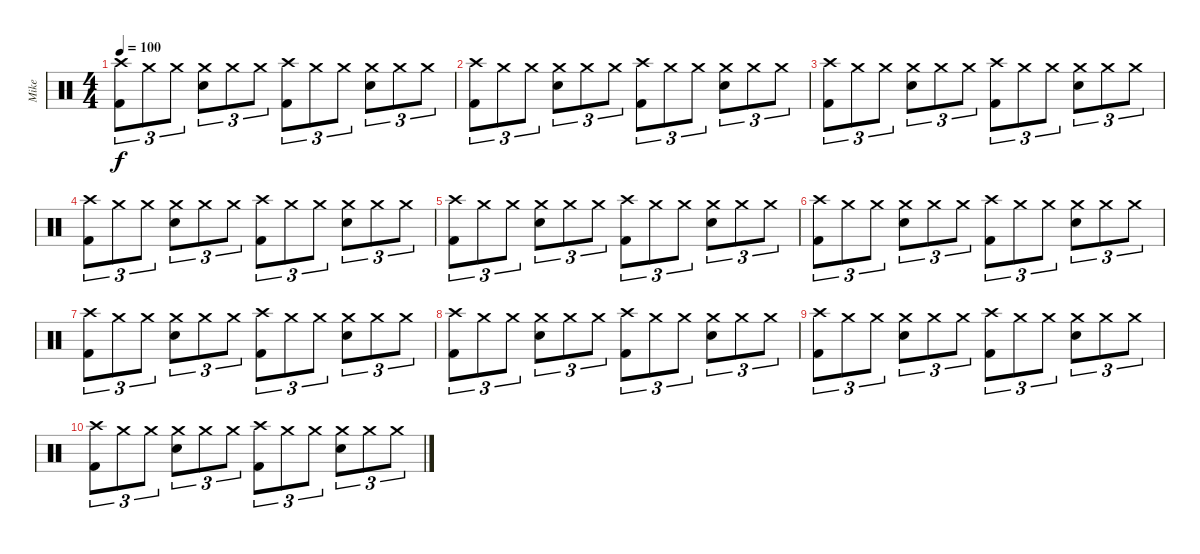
\track ("Mike" "Mike") {instrument percussion}
\staff {score}
\articulation defaults
\ts (4 4)
\tempo 100
\clef neutral
\ks c
("Crash high (hit)" "Kick (hit) 2").8{tu (3 2) dy f} "Crash medium (hit)".8{tu (3 2)} "Crash medium (hit)".8{tu (3 2)} ("Crash medium (hit)" "Electric Snare (hit)").8{tu (3 2)} "Crash medium (hit)".8{tu (3 2)} "Crash medium (hit)".8{tu (3 2)} ("Crash high (hit)" "Kick (hit) 2").8{tu (3 2)} "Crash medium (hit)".8{tu (3 2)} "Crash medium (hit)".8{tu (3 2)} ("Crash medium (hit)" "Electric Snare (hit)").8{tu (3 2)} "Crash medium (hit)".8{tu (3 2)} "Crash medium (hit)".8{tu (3 2)} |
("Crash high (hit)" "Kick (hit) 2").8{tu (3 2)} "Crash medium (hit)".8{tu (3 2)} "Crash medium (hit)".8{tu (3 2)} ("Crash medium (hit)" "Electric Snare (hit)").8{tu (3 2)} "Crash medium (hit)".8{tu (3 2)} "Crash medium (hit)".8{tu (3 2)} ("Crash high (hit)" "Kick (hit) 2").8{tu (3 2)} "Crash medium (hit)".8{tu (3 2)} "Crash medium (hit)".8{tu (3 2)} ("Crash medium (hit)" "Electric Snare (hit)").8{tu (3 2)} "Crash medium (hit)".8{tu (3 2)} "Crash medium (hit)".8{tu (3 2)} |
("Crash high (hit)" "Kick (hit) 2").8{tu (3 2)} "Crash medium (hit)".8{tu (3 2)} "Crash medium (hit)".8{tu (3 2)} ("Crash medium (hit)" "Electric Snare (hit)").8{tu (3 2)} "Crash medium (hit)".8{tu (3 2)} "Crash medium (hit)".8{tu (3 2)} ("Crash high (hit)" "Kick (hit) 2").8{tu (3 2)} "Crash medium (hit)".8{tu (3 2)} "Crash medium (hit)".8{tu (3 2)} ("Crash medium (hit)" "Electric Snare (hit)").8{tu (3 2)} "Crash medium (hit)".8{tu (3 2)} "Crash medium (hit)".8{tu (3 2)} |
("Crash high (hit)" "Kick (hit) 2").8{tu (3 2)} "Crash medium (hit)".8{tu (3 2)} "Crash medium (hit)".8{tu (3 2)} ("Crash medium (hit)" "Electric Snare (hit)").8{tu (3 2)} "Crash medium (hit)".8{tu (3 2)} "Crash medium (hit)".8{tu (3 2)} ("Crash high (hit)" "Kick (hit) 2").8{tu (3 2)} "Crash medium (hit)".8{tu (3 2)} "Crash medium (hit)".8{tu (3 2)} ("Crash medium (hit)" "Electric Snare (hit)").8{tu (3 2)} "Crash medium (hit)".8{tu (3 2)} "Crash medium (hit)".8{tu (3 2)} |
("Crash high (hit)" "Kick (hit) 2").8{tu (3 2)} "Crash medium (hit)".8{tu (3 2)} "Crash medium (hit)".8{tu (3 2)} ("Crash medium (hit)" "Electric Snare (hit)").8{tu (3 2)} "Crash medium (hit)".8{tu (3 2)} "Crash medium (hit)".8{tu (3 2)} ("Crash high (hit)" "Kick (hit) 2").8{tu (3 2)} "Crash medium (hit)".8{tu (3 2)} "Crash medium (hit)".8{tu (3 2)} ("Crash medium (hit)" "Electric Snare (hit)").8{tu (3 2)} "Crash medium (hit)".8{tu (3 2)} "Crash medium (hit)".8{tu (3 2)} |
("Crash high (hit)" "Kick (hit) 2").8{tu (3 2)} "Crash medium (hit)".8{tu (3 2)} "Crash medium (hit)".8{tu (3 2)} ("Crash medium (hit)" "Electric Snare (hit)").8{tu (3 2)} "Crash medium (hit)".8{tu (3 2)} "Crash medium (hit)".8{tu (3 2)} ("Crash high (hit)" "Kick (hit) 2").8{tu (3 2)} "Crash medium (hit)".8{tu (3 2)} "Crash medium (hit)".8{tu (3 2)} ("Crash medium (hit)" "Electric Snare (hit)").8{tu (3 2)} "Crash medium (hit)".8{tu (3 2)} "Crash medium (hit)".8{tu (3 2)} |
("Crash high (hit)" "Kick (hit) 2").8{tu (3 2)} "Crash medium (hit)".8{tu (3 2)} "Crash medium (hit)".8{tu (3 2)} ("Crash medium (hit)" "Electric Snare (hit)").8{tu (3 2)} "Crash medium (hit)".8{tu (3 2)} "Crash medium (hit)".8{tu (3 2)} ("Crash high (hit)" "Kick (hit) 2").8{tu (3 2)} "Crash medium (hit)".8{tu (3 2)} "Crash medium (hit)".8{tu (3 2)} ("Crash medium (hit)" "Electric Snare (hit)").8{tu (3 2)} "Crash medium (hit)".8{tu (3 2)} "Crash medium (hit)".8{tu (3 2)} |
("Crash high (hit)" "Kick (hit) 2").8{tu (3 2)} "Crash medium (hit)".8{tu (3 2)} "Crash medium (hit)".8{tu (3 2)} ("Crash medium (hit)" "Electric Snare (hit)").8{tu (3 2)} "Crash medium (hit)".8{tu (3 2)} "Crash medium (hit)".8{tu (3 2)} ("Crash high (hit)" "Kick (hit) 2").8{tu (3 2)} "Crash medium (hit)".8{tu (3 2)} "Crash medium (hit)".8{tu (3 2)} ("Crash medium (hit)" "Electric Snare (hit)").8{tu (3 2)} "Crash medium (hit)".8{tu (3 2)} "Crash medium (hit)".8{tu (3 2)} |
("Crash high (hit)" "Kick (hit) 2").8{tu (3 2)} "Crash medium (hit)".8{tu (3 2)} "Crash medium (hit)".8{tu (3 2)} ("Crash medium (hit)" "Electric Snare (hit)").8{tu (3 2)} "Crash medium (hit)".8{tu (3 2)} "Crash medium (hit)".8{tu (3 2)} ("Crash high (hit)" "Kick (hit) 2").8{tu (3 2)} "Crash medium (hit)".8{tu (3 2)} "Crash medium (hit)".8{tu (3 2)} ("Crash medium (hit)" "Electric Snare (hit)").8{tu (3 2)} "Crash medium (hit)".8{tu (3 2)} "Crash medium (hit)".8{tu (3 2)} |
("Crash high (hit)" "Kick (hit) 2").8{tu (3 2)} "Crash medium (hit)".8{tu (3 2)} "Crash medium (hit)".8{tu (3 2)} ("Crash medium (hit)" "Electric Snare (hit)").8{tu (3 2)} "Crash medium (hit)".8{tu (3 2)} "Crash medium (hit)".8{tu (3 2)} ("Crash high (hit)" "Kick (hit) 2").8{tu (3 2)} "Crash medium (hit)".8{tu (3 2)} "Crash medium (hit)".8{tu (3 2)} ("Crash medium (hit)" "Electric Snare (hit)").8{tu (3 2)} "Crash medium (hit)".8{tu (3 2)} "Crash medium (hit)".8{tu (3 2)}
